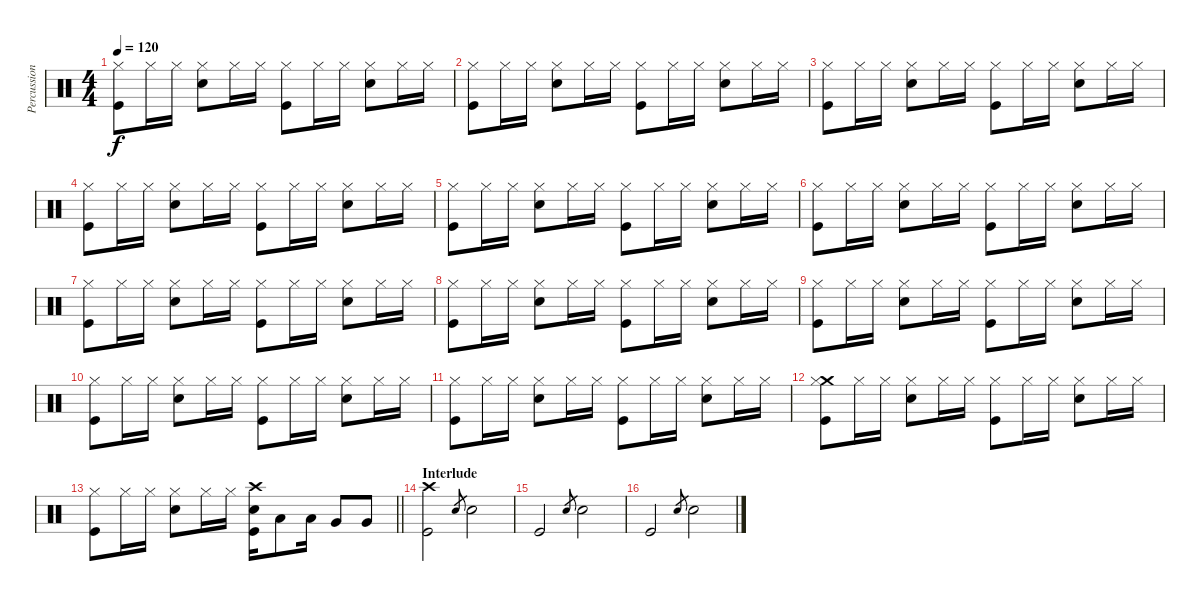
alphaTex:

\track ("Percussions" "Percussion") {instrument percussion}
\staff {score}
\articulation defaults
\ts (4 4)
\tempo 120
\clef neutral
\ks c
("Hi-Hat (closed)" "Kick (hit)").8{dy f} "Hi-Hat (closed)".16 "Hi-Hat (closed)".16 ("Hi-Hat (closed)" "Snare (hit) 2").8 "Hi-Hat (closed)".16 "Hi-Hat (closed)".16 ("Hi-Hat (closed)" "Kick (hit)").8 "Hi-Hat (closed)".16 "Hi-Hat (closed)".16 ("Hi-Hat (closed)" "Snare (hit) 2").8 "Hi-Hat (closed)".16 "Hi-Hat (closed)".16 |
("Hi-Hat (closed)" "Kick (hit)").8 "Hi-Hat (closed)".16 "Hi-Hat (closed)".16 ("Hi-Hat (closed)" "Snare (hit) 2").8 "Hi-Hat (closed)".16 "Hi-Hat (closed)".16 ("Hi-Hat (closed)" "Kick (hit)").8 "Hi-Hat (closed)".16 "Hi-Hat (closed)".16 ("Hi-Hat (closed)" "Snare (hit) 2").8 "Hi-Hat (closed)".16 "Hi-Hat (closed)".16 |
("Hi-Hat (closed)" "Kick (hit)").8 "Hi-Hat (closed)".16 "Hi-Hat (closed)".16 ("Hi-Hat (closed)" "Snare (hit) 2").8 "Hi-Hat (closed)".16 "Hi-Hat (closed)".16 ("Hi-Hat (closed)" "Kick (hit)").8 "Hi-Hat (closed)".16 "Hi-Hat (closed)".16 ("Hi-Hat (closed)" "Snare (hit) 2").8 "Hi-Hat (closed)".16 "Hi-Hat (closed)".16 |
("Hi-Hat (closed)" "Kick (hit)").8 "Hi-Hat (closed)".16 "Hi-Hat (closed)".16 ("Hi-Hat (closed)" "Snare (hit) 2").8 "Hi-Hat (closed)".16 "Hi-Hat (closed)".16 ("Hi-Hat (closed)" "Kick (hit)").8 "Hi-Hat (closed)".16 "Hi-Hat (closed)".16 ("Hi-Hat (closed)" "Snare (hit) 2").8 "Hi-Hat (closed)".16 "Hi-Hat (closed)".16 |
("Hi-Hat (closed)" "Kick (hit)").8 "Hi-Hat (closed)".16 "Hi-Hat (closed)".16 ("Hi-Hat (closed)" "Snare (hit) 2").8 "Hi-Hat (closed)".16 "Hi-Hat (closed)".16 ("Hi-Hat (closed)" "Kick (hit)").8 "Hi-Hat (closed)".16 "Hi-Hat (closed)".16 ("Hi-Hat (closed)" "Snare (hit) 2").8 "Hi-Hat (closed)".16 "Hi-Hat (closed)".16 |
("Hi-Hat (closed)" "Kick (hit)").8 "Hi-Hat (closed)".16 "Hi-Hat (closed)".16 ("Hi-Hat (closed)" "Snare (hit) 2").8 "Hi-Hat (closed)".16 "Hi-Hat (closed)".16 ("Hi-Hat (closed)" "Kick (hit)").8 "Hi-Hat (closed)".16 "Hi-Hat (closed)".16 ("Hi-Hat (closed)" "Snare (hit) 2").8 "Hi-Hat (closed)".16 "Hi-Hat (closed)".16 |
("Hi-Hat (closed)" "Kick (hit)").8 "Hi-Hat (closed)".16 "Hi-Hat (closed)".16 ("Hi-Hat (closed)" "Snare (hit) 2").8 "Hi-Hat (closed)".16 "Hi-Hat (closed)".16 ("Hi-Hat (closed)" "Kick (hit)").8 "Hi-Hat (closed)".16 "Hi-Hat (closed)".16 ("Hi-Hat (closed)" "Snare (hit) 2").8 "Hi-Hat (closed)".16 "Hi-Hat (closed)".16 |
("Hi-Hat (closed)" "Kick (hit)").8 "Hi-Hat (closed)".16 "Hi-Hat (closed)".16 ("Hi-Hat (closed)" "Snare (hit) 2").8 "Hi-Hat (closed)".16 "Hi-Hat (closed)".16 ("Hi-Hat (closed)" "Kick (hit)").8 "Hi-Hat (closed)".16 "Hi-Hat (closed)".16 ("Hi-Hat (closed)" "Snare (hit) 2").8 "Hi-Hat (closed)".16 "Hi-Hat (closed)".16 |
("Hi-Hat (closed)" "Kick (hit)").8 "Hi-Hat (closed)".16 "Hi-Hat (closed)".16 ("Hi-Hat (closed)" "Snare (hit) 2").8 "Hi-Hat (closed)".16 "Hi-Hat (closed)".16 ("Hi-Hat (closed)" "Kick (hit)").8 "Hi-Hat (closed)".16 "Hi-Hat (closed)".16 ("Hi-Hat (closed)" "Snare (hit) 2").8 "Hi-Hat (closed)".16 "Hi-Hat (closed)".16 |
("Hi-Hat (closed)" "Kick (hit)").8 "Hi-Hat (closed)".16 "Hi-Hat (closed)".16 ("Hi-Hat (closed)" "Snare (hit) 2").8 "Hi-Hat (closed)".16 "Hi-Hat (closed)".16 ("Hi-Hat (closed)" "Kick (hit)").8 "Hi-Hat (closed)".16 "Hi-Hat (closed)".16 ("Hi-Hat (closed)" "Snare (hit) 2").8 "Hi-Hat (closed)".16 "Hi-Hat (closed)".16 |
("Hi-Hat (closed)" "Kick (hit)").8 "Hi-Hat (closed)".16 "Hi-Hat (closed)".16 ("Hi-Hat (closed)" "Snare (hit) 2").8 "Hi-Hat (closed)".16 "Hi-Hat (closed)".16 ("Hi-Hat (closed)" "Kick (hit)").8 "Hi-Hat (closed)".16 "Hi-Hat (closed)".16 ("Hi-Hat (closed)" "Snare (hit) 2").8 "Hi-Hat (closed)".16 "Hi-Hat (closed)".16 |
("Crash medium (hit)" "Hi-Hat (closed)" "Kick (hit)").8 "Hi-Hat (closed)".16 "Hi-Hat (closed)".16 ("Hi-Hat (closed)" "Snare (hit) 2").8 "Hi-Hat (closed)".16 "Hi-Hat (closed)".16 ("Hi-Hat (closed)" "Kick (hit)").8 "Hi-Hat (closed)".16 "Hi-Hat (closed)".16 ("Hi-Hat (closed)" "Snare (hit) 2").8 "Hi-Hat (closed)".16 "Hi-Hat (closed)".16 |
\barLineRight lightlight
("Hi-Hat (closed)" "Kick (hit)").8 "Hi-Hat (closed)".16 "Hi-Hat (closed)".16 ("Hi-Hat (closed)" "Snare (hit) 2").8 "Hi-Hat (closed)".16 "Hi-Hat (closed)".16 ("Crash high (hit)" "Snare (hit) 2" "Kick (hit)").16 "Low Tom (hit)".8 "Low Tom (hit)".16 "Very Low Tom (hit)".8 "Very Low Tom (hit)".8 |
\section ("" "Interlude")
("Crash high (hit)" "Kick (hit)").2 "Snare (hit) 2".8{gr} "Snare (hit) 2".2 |
"Kick (hit)".2 "Snare (hit) 2".8{gr} "Snare (hit) 2".2 |
"Kick (hit)".2 "Snare (hit) 2".8{gr} "Snare (hit) 2".2
